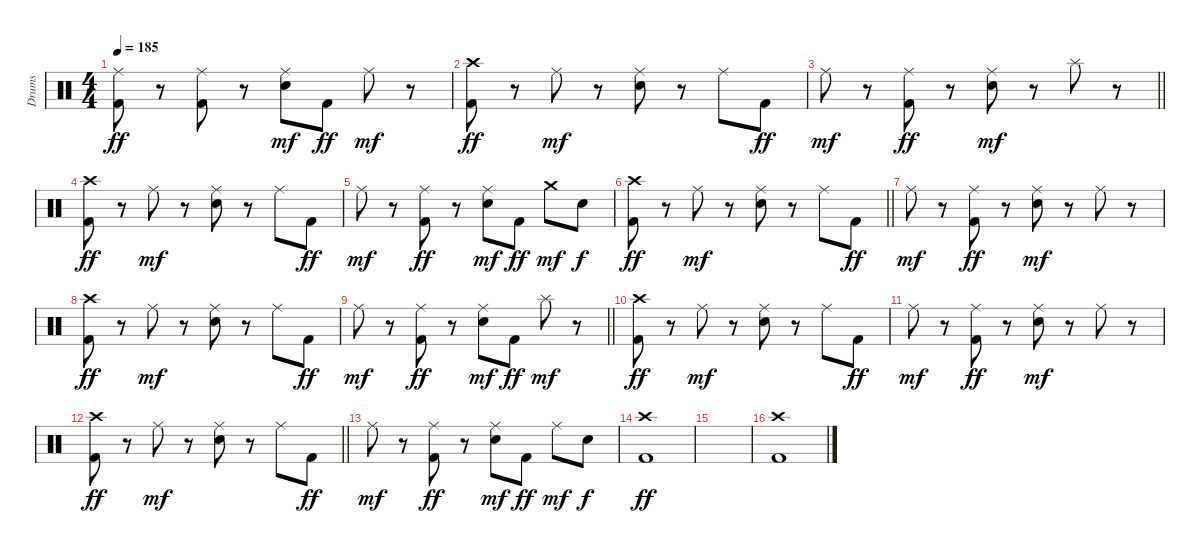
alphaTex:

\track ("Drums" "Drums") {instrument percussion}
\staff {score}
\articulation defaults
\ts (4 4)
\tempo 185
\clef neutral
\ks c
("Ride (middle)" "Kick (hit) 2").8{dy ff} r.8 ("Ride (middle)" "Kick (hit) 2").8 r.8 ("Ride (middle)" "Electric Snare (hit)").8{dy mf} "Kick (hit) 2".8{dy ff} "Ride (middle)".8{dy mf} r.8 |
("Crash high (hit)" "Kick (hit) 2").8{dy ff} r.8 "Ride (middle)".8{dy mf} r.8 ("Ride (middle)" "Electric Snare (hit)").8 r.8 "Ride (middle)".8 "Kick (hit) 2".8{dy ff} |
\barLineRight lightlight "Ride (middle)".8{dy mf}
r.8 ("Ride (middle)" "Kick (hit) 2").8{dy ff} r.8 ("Ride (middle)" "Electric Snare (hit)").8{dy mf} r.8 "Splash (hit)".8 r.8 |
("Crash high (hit)" "Kick (hit) 2").8{dy ff} r.8 "Ride (middle)".8{dy mf} r.8 ("Ride (middle)" "Electric Snare (hit)").8 r.8 "Ride (middle)".8 "Kick (hit) 2".8{dy ff} |
"Ride (middle)".8{dy mf} r.8 ("Ride (middle)" "Kick (hit) 2").8{dy ff} r.8 ("Ride (middle)" "Electric Snare (hit)").8{dy mf} "Kick (hit) 2".8{dy ff} "Crash medium (hit)".8{dy mf} "Electric Snare (hit)".8{dy f} |
\barLineRight lightlight
("Crash high (hit)" "Kick (hit) 2").8{dy ff} r.8 "Ride (middle)".8{dy mf} r.8 ("Ride (middle)" "Electric Snare (hit)").8 r.8 "Ride (middle)".8 "Kick (hit) 2".8{dy ff} |
"Ride (middle)".8{dy mf} r.8 ("Ride (middle)" "Kick (hit) 2").8{dy ff} r.8 ("Ride (middle)" "Electric Snare (hit)").8{dy mf} r.8 "Ride (middle)".8 r.8 |
("Crash high (hit)" "Kick (hit) 2").8{dy ff} r.8 "Ride (middle)".8{dy mf} r.8 ("Ride (middle)" "Electric Snare (hit)").8 r.8 "Ride (middle)".8 "Kick (hit) 2".8{dy ff} |
\barLineRight lightlight "Ride (middle)".8{dy mf}
r.8 ("Ride (middle)" "Kick (hit) 2").8{dy ff} r.8 ("Ride (middle)" "Electric Snare (hit)").8{dy mf} "Kick (hit) 2".8{dy ff} "Splash (hit)".8{dy mf} r.8 |
("Crash high (hit)" "Kick (hit) 2").8{dy ff} r.8 "Ride (middle)".8{dy mf} r.8 ("Ride (middle)" "Electric Snare (hit)").8 r.8 "Ride (middle)".8 "Kick (hit) 2".8{dy ff} |
"Ride (middle)".8{dy mf} r.8 ("Ride (middle)" "Kick (hit) 2").8{dy ff} r.8 ("Ride (middle)" "Electric Snare (hit)").8{dy mf} r.8 "Ride (middle)".8 r.8 |
\barLineRight lightlight
("Crash high (hit)" "Kick (hit) 2").8{dy ff} r.8 "Ride (middle)".8{dy mf} r.8 ("Ride (middle)" "Electric Snare (hit)").8 r.8 "Ride (middle)".8 "Kick (hit) 2".8{dy ff} |
"Ride (middle)".8{dy mf} r.8 ("Ride (middle)" "Kick (hit) 2").8{dy ff} r.8 ("Ride (middle)" "Electric Snare (hit)").8{dy mf} "Kick (hit) 2".8{dy ff} "Ride (middle)".8{dy mf} "Electric Snare (hit)".8{dy f} |
("Crash high (hit)" "Kick (hit) 2").1{dy ff} |
|
("Crash high (hit)" "Kick (hit) 2").1
